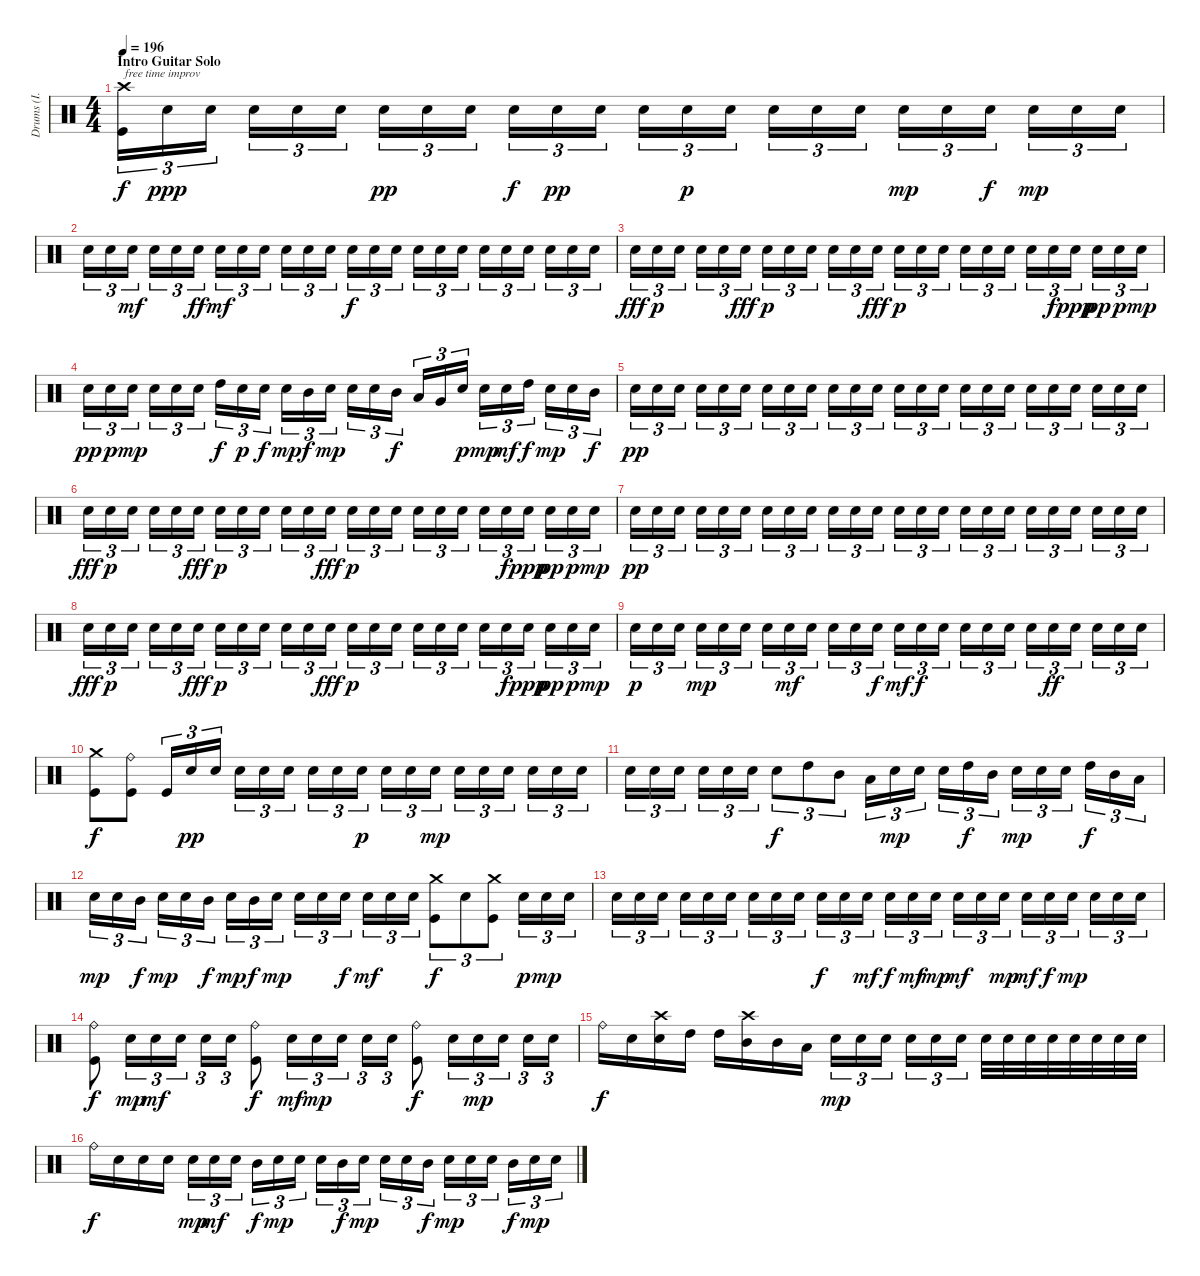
\track ("Drums (I. Paice)" "Drums (I. ") {instrument percussion}
\staff {score}
\articulation defaults
\ts (4 4)
\section ("" "Intro Guitar Solo")
\tempo 196
\tempo 135
\tempo 196
\clef neutral
\ks c
("Crash high (hit)" "Kick (hit)").16{tu (3 2) txt "free time improv" dy f} "Electric Snare (hit)".16{tu (3 2) dy ppp} "Electric Snare (hit)".16{tu (3 2)} "Electric Snare (hit)".16{tu (3 2)} "Electric Snare (hit)".16{tu (3 2)} "Electric Snare (hit)".16{tu (3 2)} "Electric Snare (hit)".16{tu (3 2) dy pp} "Electric Snare (hit)".16{tu (3 2)} "Electric Snare (hit)".16{tu (3 2)} "Electric Snare (hit)".16{tu (3 2) dy f} "Electric Snare (hit)".16{tu (3 2) dy pp} "Electric Snare (hit)".16{tu (3 2)} "Electric Snare (hit)".16{tu (3 2)} "Electric Snare (hit)".16{tu (3 2) dy p} "Electric Snare (hit)".16{tu (3 2)} "Electric Snare (hit)".16{tu (3 2)} "Electric Snare (hit)".16{tu (3 2)} "Electric Snare (hit)".16{tu (3 2)} "Electric Snare (hit)".16{tu (3 2) dy mp} "Electric Snare (hit)".16{tu (3 2)} "Electric Snare (hit)".16{tu (3 2) dy f} "Electric Snare (hit)".16{tu (3 2) dy mp} "Electric Snare (hit)".16{tu (3 2)} "Electric Snare (hit)".16{tu (3 2)} |
"Electric Snare (hit)".16{tu (3 2)} "Electric Snare (hit)".16{tu (3 2)} "Electric Snare (hit)".16{tu (3 2) dy mf} "Electric Snare (hit)".16{tu (3 2)} "Electric Snare (hit)".16{tu (3 2)} "Electric Snare (hit)".16{tu (3 2) dy ff} "Electric Snare (hit)".16{tu (3 2) dy mf} "Electric Snare (hit)".16{tu (3 2)} "Electric Snare (hit)".16{tu (3 2)} "Electric Snare (hit)".16{tu (3 2)} "Electric Snare (hit)".16{tu (3 2)} "Electric Snare (hit)".16{tu (3 2)} "Electric Snare (hit)".16{tu (3 2) dy f} "Electric Snare (hit)".16{tu (3 2)} "Electric Snare (hit)".16{tu (3 2)} "Electric Snare (hit)".16{tu (3 2)} "Electric Snare (hit)".16{tu (3 2)} "Electric Snare (hit)".16{tu (3 2)} "Electric Snare (hit)".16{tu (3 2)} "Electric Snare (hit)".16{tu (3 2)} "Electric Snare (hit)".16{tu (3 2)} "Electric Snare (hit)".16{tu (3 2)} "Electric Snare (hit)".16{tu (3 2)} "Electric Snare (hit)".16{tu (3 2)} |
"Electric Snare (hit)".16{tu (3 2) dy fff} "Electric Snare (hit)".16{tu (3 2) dy p} "Electric Snare (hit)".16{tu (3 2)} "Electric Snare (hit)".16{tu (3 2)} "Electric Snare (hit)".16{tu (3 2)} "Electric Snare (hit)".16{tu (3 2) dy fff} "Electric Snare (hit)".16{tu (3 2) dy p} "Electric Snare (hit)".16{tu (3 2)} "Electric Snare (hit)".16{tu (3 2)} "Electric Snare (hit)".16{tu (3 2)} "Electric Snare (hit)".16{tu (3 2)} "Electric Snare (hit)".16{tu (3 2) dy fff} "Electric Snare (hit)".16{tu (3 2) dy p} "Electric Snare (hit)".16{tu (3 2)} "Electric Snare (hit)".16{tu (3 2)} "Electric Snare (hit)".16{tu (3 2)} "Electric Snare (hit)".16{tu (3 2)} "Electric Snare (hit)".16{tu (3 2)} "Electric Snare (hit)".16{tu (3 2)} "Electric Snare (hit)".16{tu (3 2) dy f} "Electric Snare (hit)".16{tu (3 2) dy ppp} "Electric Snare (hit)".16{tu (3 2) dy pp} "Electric Snare (hit)".16{tu (3 2) dy p} "Electric Snare (hit)".16{tu (3 2) dy mp} |
"Electric Snare (hit)".16{tu (3 2) dy pp} "Electric Snare (hit)".16{tu (3 2) dy p} "Electric Snare (hit)".16{tu (3 2) dy mp} "Electric Snare (hit)".16{tu (3 2)} "Electric Snare (hit)".16{tu (3 2)} "Electric Snare (hit)".16{tu (3 2)} "High Tom (hit)".16{tu (3 2) dy f} "Electric Snare (hit)".16{tu (3 2) dy p} "Electric Snare (hit)".16{tu (3 2) dy f} "Electric Snare (hit)".16{tu (3 2) dy mp} "Mid Tom (hit)".16{tu (3 2) dy f} "Electric Snare (hit)".16{tu (3 2) dy mp} "Electric Snare (hit)".16{tu (3 2)} "Electric Snare (hit)".16{tu (3 2)} "Mid Tom (hit)".16{tu (3 2) dy f} "Low Tom (hit)".16{tu (3 2)} "Very Low Tom (hit)".16{tu (3 2)} "Electric Snare (hit)".16{tu (3 2) dy p} "Electric Snare (hit)".16{tu (3 2) dy mp} "Electric Snare (hit)".16{tu (3 2) dy mf} "High Tom (hit)".16{tu (3 2) dy f} "Electric Snare (hit)".16{tu (3 2) dy mp} "Electric Snare (hit)".16{tu (3 2)} "Mid Tom (hit)".16{tu (3 2) dy f} |
"Electric Snare (hit)".16{tu (3 2) dy pp} "Electric Snare (hit)".16{tu (3 2)} "Electric Snare (hit)".16{tu (3 2)} "Electric Snare (hit)".16{tu (3 2)} "Electric Snare (hit)".16{tu (3 2)} "Electric Snare (hit)".16{tu (3 2)} "Electric Snare (hit)".16{tu (3 2)} "Electric Snare (hit)".16{tu (3 2)} "Electric Snare (hit)".16{tu (3 2)} "Electric Snare (hit)".16{tu (3 2)} "Electric Snare (hit)".16{tu (3 2)} "Electric Snare (hit)".16{tu (3 2)} "Electric Snare (hit)".16{tu (3 2)} "Electric Snare (hit)".16{tu (3 2)} "Electric Snare (hit)".16{tu (3 2)} "Electric Snare (hit)".16{tu (3 2)} "Electric Snare (hit)".16{tu (3 2)} "Electric Snare (hit)".16{tu (3 2)} "Electric Snare (hit)".16{tu (3 2)} "Electric Snare (hit)".16{tu (3 2)} "Electric Snare (hit)".16{tu (3 2)} "Electric Snare (hit)".16{tu (3 2)} "Electric Snare (hit)".16{tu (3 2)} "Electric Snare (hit)".16{tu (3 2)} |
"Electric Snare (hit)".16{tu (3 2) dy fff} "Electric Snare (hit)".16{tu (3 2) dy p} "Electric Snare (hit)".16{tu (3 2)} "Electric Snare (hit)".16{tu (3 2)} "Electric Snare (hit)".16{tu (3 2)} "Electric Snare (hit)".16{tu (3 2) dy fff} "Electric Snare (hit)".16{tu (3 2) dy p} "Electric Snare (hit)".16{tu (3 2)} "Electric Snare (hit)".16{tu (3 2)} "Electric Snare (hit)".16{tu (3 2)} "Electric Snare (hit)".16{tu (3 2)} "Electric Snare (hit)".16{tu (3 2) dy fff} "Electric Snare (hit)".16{tu (3 2) dy p} "Electric Snare (hit)".16{tu (3 2)} "Electric Snare (hit)".16{tu (3 2)} "Electric Snare (hit)".16{tu (3 2)} "Electric Snare (hit)".16{tu (3 2)} "Electric Snare (hit)".16{tu (3 2)} "Electric Snare (hit)".16{tu (3 2)} "Electric Snare (hit)".16{tu (3 2) dy f} "Electric Snare (hit)".16{tu (3 2) dy ppp} "Electric Snare (hit)".16{tu (3 2) dy pp} "Electric Snare (hit)".16{tu (3 2) dy p} "Electric Snare (hit)".16{tu (3 2) dy mp} |
"Electric Snare (hit)".16{tu (3 2) dy pp} "Electric Snare (hit)".16{tu (3 2)} "Electric Snare (hit)".16{tu (3 2)} "Electric Snare (hit)".16{tu (3 2)} "Electric Snare (hit)".16{tu (3 2)} "Electric Snare (hit)".16{tu (3 2)} "Electric Snare (hit)".16{tu (3 2)} "Electric Snare (hit)".16{tu (3 2)} "Electric Snare (hit)".16{tu (3 2)} "Electric Snare (hit)".16{tu (3 2)} "Electric Snare (hit)".16{tu (3 2)} "Electric Snare (hit)".16{tu (3 2)} "Electric Snare (hit)".16{tu (3 2)} "Electric Snare (hit)".16{tu (3 2)} "Electric Snare (hit)".16{tu (3 2)} "Electric Snare (hit)".16{tu (3 2)} "Electric Snare (hit)".16{tu (3 2)} "Electric Snare (hit)".16{tu (3 2)} "Electric Snare (hit)".16{tu (3 2)} "Electric Snare (hit)".16{tu (3 2)} "Electric Snare (hit)".16{tu (3 2)} "Electric Snare (hit)".16{tu (3 2)} "Electric Snare (hit)".16{tu (3 2)} "Electric Snare (hit)".16{tu (3 2)} |
"Electric Snare (hit)".16{tu (3 2) dy fff} "Electric Snare (hit)".16{tu (3 2) dy p} "Electric Snare (hit)".16{tu (3 2)} "Electric Snare (hit)".16{tu (3 2)} "Electric Snare (hit)".16{tu (3 2)} "Electric Snare (hit)".16{tu (3 2) dy fff} "Electric Snare (hit)".16{tu (3 2) dy p} "Electric Snare (hit)".16{tu (3 2)} "Electric Snare (hit)".16{tu (3 2)} "Electric Snare (hit)".16{tu (3 2)} "Electric Snare (hit)".16{tu (3 2)} "Electric Snare (hit)".16{tu (3 2) dy fff} "Electric Snare (hit)".16{tu (3 2) dy p} "Electric Snare (hit)".16{tu (3 2)} "Electric Snare (hit)".16{tu (3 2)} "Electric Snare (hit)".16{tu (3 2)} "Electric Snare (hit)".16{tu (3 2)} "Electric Snare (hit)".16{tu (3 2)} "Electric Snare (hit)".16{tu (3 2)} "Electric Snare (hit)".16{tu (3 2) dy f} "Electric Snare (hit)".16{tu (3 2) dy ppp} "Electric Snare (hit)".16{tu (3 2) dy pp} "Electric Snare (hit)".16{tu (3 2) dy p} "Electric Snare (hit)".16{tu (3 2) dy mp} |
"Electric Snare (hit)".16{tu (3 2) dy p} "Electric Snare (hit)".16{tu (3 2)} "Electric Snare (hit)".16{tu (3 2)} "Electric Snare (hit)".16{tu (3 2) dy mp} "Electric Snare (hit)".16{tu (3 2)} "Electric Snare (hit)".16{tu (3 2)} "Electric Snare (hit)".16{tu (3 2)} "Electric Snare (hit)".16{tu (3 2) dy mf} "Electric Snare (hit)".16{tu (3 2)} "Electric Snare (hit)".16{tu (3 2)} "Electric Snare (hit)".16{tu (3 2)} "Electric Snare (hit)".16{tu (3 2) dy f} "Electric Snare (hit)".16{tu (3 2) dy mf} "Electric Snare (hit)".16{tu (3 2) dy f} "Electric Snare (hit)".16{tu (3 2)} "Electric Snare (hit)".16{tu (3 2)} "Electric Snare (hit)".16{tu (3 2)} "Electric Snare (hit)".16{tu (3 2)} "Electric Snare (hit)".16{tu (3 2)} "Electric Snare (hit)".16{tu (3 2) dy ff} "Electric Snare (hit)".16{tu (3 2)} "Electric Snare (hit)".16{tu (3 2)} "Electric Snare (hit)".16{tu (3 2)} "Electric Snare (hit)".16{tu (3 2)} |
("Crash medium (hit)" "Kick (hit)").8{dy f} ("Ride (bell)" "Kick (hit)").8 "Kick (hit)".16{tu (3 2)} "Electric Snare (hit)".16{tu (3 2) dy pp} "Electric Snare (hit)".16{tu (3 2)} "Electric Snare (hit)".16{tu (3 2)} "Electric Snare (hit)".16{tu (3 2)} "Electric Snare (hit)".16{tu (3 2)} "Electric Snare (hit)".16{tu (3 2)} "Electric Snare (hit)".16{tu (3 2)} "Electric Snare (hit)".16{tu (3 2) dy p} "Electric Snare (hit)".16{tu (3 2)} "Electric Snare (hit)".16{tu (3 2)} "Electric Snare (hit)".16{tu (3 2) dy mp} "Electric Snare (hit)".16{tu (3 2)} "Electric Snare (hit)".16{tu (3 2)} "Electric Snare (hit)".16{tu (3 2)} "Electric Snare (hit)".16{tu (3 2)} "Electric Snare (hit)".16{tu (3 2)} "Electric Snare (hit)".16{tu (3 2)} |
"Electric Snare (hit)".16{tu (3 2)} "Electric Snare (hit)".16{tu (3 2)} "Electric Snare (hit)".16{tu (3 2)} "Electric Snare (hit)".16{tu (3 2)} "Electric Snare (hit)".16{tu (3 2)} "Electric Snare (hit)".16{tu (3 2)} "Electric Snare (hit)".8{tu (3 2) dy f} "High Tom (hit)".8{tu (3 2)} "Mid Tom (hit)".8{tu (3 2)} "Low Tom (hit)".16{tu (3 2)} "Electric Snare (hit)".16{tu (3 2) dy mp} "Electric Snare (hit)".16{tu (3 2)} "Electric Snare (hit)".16{tu (3 2)} "High Tom (hit)".16{tu (3 2) dy f} "Mid Tom (hit)".16{tu (3 2)} "Electric Snare (hit)".16{tu (3 2) dy mp} "Electric Snare (hit)".16{tu (3 2)} "Electric Snare (hit)".16{tu (3 2)} "High Tom (hit)".16{tu (3 2) dy f} "Mid Tom (hit)".16{tu (3 2)} "Low Tom (hit)".16{tu (3 2)} |
"Electric Snare (hit)".16{tu (3 2) dy mp} "Electric Snare (hit)".16{tu (3 2)} "Mid Tom (hit)".16{tu (3 2) dy f} "Electric Snare (hit)".16{tu (3 2) dy mp} "Electric Snare (hit)".16{tu (3 2)} "Mid Tom (hit)".16{tu (3 2) dy f} "Electric Snare (hit)".16{tu (3 2) dy mp} "Mid Tom (hit)".16{tu (3 2) dy f} "Electric Snare (hit)".16{tu (3 2) dy mp} "Electric Snare (hit)".16{tu (3 2)} "Electric Snare (hit)".16{tu (3 2)} "Electric Snare (hit)".16{tu (3 2) dy f} "Electric Snare (hit)".16{tu (3 2) dy mf} "Electric Snare (hit)".16{tu (3 2)} "Electric Snare (hit)".16{tu (3 2)} ("Crash medium (hit)" "Kick (hit)").8{tu (3 2) dy f} "Electric Snare (hit)".8{tu (3 2)} ("Crash medium (hit)" "Kick (hit)").8{tu (3 2)} "Electric Snare (hit)".16{tu (3 2) dy p} "Electric Snare (hit)".16{tu (3 2) dy mp} "Electric Snare (hit)".16{tu (3 2)} |
"Electric Snare (hit)".16{tu (3 2)} "Electric Snare (hit)".16{tu (3 2)} "Electric Snare (hit)".16{tu (3 2)} "Electric Snare (hit)".16{tu (3 2)} "Electric Snare (hit)".16{tu (3 2)} "Electric Snare (hit)".16{tu (3 2)} "Electric Snare (hit)".16{tu (3 2)} "Electric Snare (hit)".16{tu (3 2)} "Electric Snare (hit)".16{tu (3 2)} "Electric Snare (hit)".16{tu (3 2) dy f} "Electric Snare (hit)".16{tu (3 2)} "Electric Snare (hit)".16{tu (3 2) dy mf} "Electric Snare (hit)".16{tu (3 2) dy f} "Electric Snare (hit)".16{tu (3 2) dy mf} "Electric Snare (hit)".16{tu (3 2) dy mp} "Electric Snare (hit)".16{tu (3 2) dy mf} "Electric Snare (hit)".16{tu (3 2)} "Electric Snare (hit)".16{tu (3 2) dy mp} "Electric Snare (hit)".16{tu (3 2) dy mf} "Electric Snare (hit)".16{tu (3 2) dy f} "Electric Snare (hit)".16{tu (3 2) dy mp} "Electric Snare (hit)".16{tu (3 2)} "Electric Snare (hit)".16{tu (3 2)} "Electric Snare (hit)".16{tu (3 2)} |
("Ride (bell)" "Kick (hit)").8{dy f} "Electric Snare (hit)".16{tu (3 2) dy mp} "Electric Snare (hit)".16{tu (3 2) dy mf} "Electric Snare (hit)".16{tu (3 2)} "Electric Snare (hit)".16{tu (3 2)} "Electric Snare (hit)".16{tu (3 2)} ("Ride (bell)" "Kick (hit)").8{dy f} "Electric Snare (hit)".16{tu (3 2) dy mf} "Electric Snare (hit)".16{tu (3 2) dy mp} "Electric Snare (hit)".16{tu (3 2)} "Electric Snare (hit)".16{tu (3 2)} "Electric Snare (hit)".16{tu (3 2)} ("Ride (bell)" "Kick (hit)").8{dy f} "Electric Snare (hit)".16{tu (3 2)} "Electric Snare (hit)".16{tu (3 2) dy mp} "Electric Snare (hit)".16{tu (3 2)} "Electric Snare (hit)".16{tu (3 2)} "Electric Snare (hit)".16{tu (3 2)} |
"Ride (bell)".16{dy f} "Electric Snare (hit)".16 ("Crash high (hit)" "Electric Snare (hit)").16 "High Tom (hit)".16 "High Tom (hit)".16 ("Crash high (hit)" "Mid Tom (hit)").16 "Mid Tom (hit)".16 "Low Tom (hit)".16 "Electric Snare (hit)".16{tu (3 2) dy mp} "Electric Snare (hit)".16{tu (3 2)} "Electric Snare (hit)".16{tu (3 2)} "Electric Snare (hit)".16{tu (3 2)} "Electric Snare (hit)".16{tu (3 2)} "Electric Snare (hit)".16{tu (3 2)} "Electric Snare (hit)".32 "Electric Snare (hit)".32 "Electric Snare (hit)".32 "Electric Snare (hit)".32 "Electric Snare (hit)".32 "Electric Snare (hit)".32 "Electric Snare (hit)".32 "Electric Snare (hit)".32 |
"Ride (bell)".16{dy f} "Electric Snare (hit)".16 "Electric Snare (hit)".16 "Electric Snare (hit)".16 "Electric Snare (hit)".16{tu (3 2) dy mp} "Electric Snare (hit)".16{tu (3 2) dy mf} "Electric Snare (hit)".16{tu (3 2)} "Mid Tom (hit)".16{tu (3 2) dy f} "Electric Snare (hit)".16{tu (3 2) dy mp} "Electric Snare (hit)".16{tu (3 2)} "Electric Snare (hit)".16{tu (3 2)} "Mid Tom (hit)".16{tu (3 2) dy f} "Electric Snare (hit)".16{tu (3 2) dy mp} "Electric Snare (hit)".16{tu (3 2)} "Electric Snare (hit)".16{tu (3 2)} "Mid Tom (hit)".16{tu (3 2) dy f} "Electric Snare (hit)".16{tu (3 2) dy mp} "Electric Snare (hit)".16{tu (3 2)} "Electric Snare (hit)".16{tu (3 2)} "Mid Tom (hit)".16{tu (3 2) dy f} "Electric Snare (hit)".16{tu (3 2) dy mp} "Electric Snare (hit)".16{tu (3 2)}
